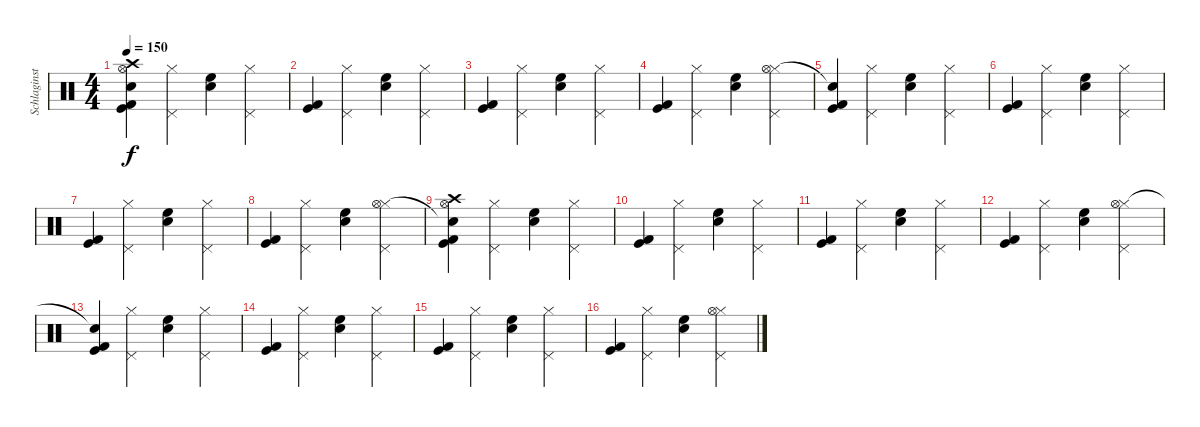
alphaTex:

\track ("Schlaginstrumente - Auswahl" "Schlaginst") {instrument percussion}
\staff {score}
\articulation defaults
\ts (4 4)
\tempo 150
\clef neutral
\ks c
("Kick (hit) 2" "Kick (hit)" "Snare (hit)"{t} "Hi-Hat (open)" "Crash high (hit)").4{dy f} ("Pedal Hi-Hat (hit)" "Hi-Hat (closed)").4 ("High Floor Tom (hit)" "Snare (hit) 2").4 ("Pedal Hi-Hat (hit)" "Hi-Hat (closed)").4 |
("Kick (hit) 2" "Kick (hit)").4 ("Pedal Hi-Hat (hit)" "Hi-Hat (closed)").4 ("High Floor Tom (hit)" "Snare (hit) 2").4 ("Pedal Hi-Hat (hit)" "Hi-Hat (closed)").4 |
("Kick (hit) 2" "Kick (hit)").4 ("Pedal Hi-Hat (hit)" "Hi-Hat (closed)").4 ("High Floor Tom (hit)" "Snare (hit) 2").4 ("Pedal Hi-Hat (hit)" "Hi-Hat (closed)").4 |
("Kick (hit) 2" "Kick (hit)").4 ("Pedal Hi-Hat (hit)" "Hi-Hat (closed)").4 ("High Floor Tom (hit)" "Snare (hit) 2").4 ("Pedal Hi-Hat (hit)" "Hi-Hat (closed)" "Hi-Hat (open)").4 |
("Kick (hit) 2" "Kick (hit)" "Snare (hit)"{t}).4 ("Pedal Hi-Hat (hit)" "Hi-Hat (closed)").4 ("High Floor Tom (hit)" "Snare (hit) 2").4 ("Pedal Hi-Hat (hit)" "Hi-Hat (closed)").4 |
("Kick (hit) 2" "Kick (hit)").4 ("Pedal Hi-Hat (hit)" "Hi-Hat (closed)").4 ("High Floor Tom (hit)" "Snare (hit) 2").4 ("Pedal Hi-Hat (hit)" "Hi-Hat (closed)").4 |
("Kick (hit) 2" "Kick (hit)").4 ("Pedal Hi-Hat (hit)" "Hi-Hat (closed)").4 ("High Floor Tom (hit)" "Snare (hit) 2").4 ("Pedal Hi-Hat (hit)" "Hi-Hat (closed)").4 |
("Kick (hit) 2" "Kick (hit)").4 ("Pedal Hi-Hat (hit)" "Hi-Hat (closed)").4 ("High Floor Tom (hit)" "Snare (hit) 2").4 ("Pedal Hi-Hat (hit)" "Hi-Hat (closed)" "Hi-Hat (open)").4 |
("Kick (hit) 2" "Kick (hit)" "Snare (hit)"{t} "Hi-Hat (open)" "Crash high (hit)").4 ("Pedal Hi-Hat (hit)" "Hi-Hat (closed)").4 ("High Floor Tom (hit)" "Snare (hit) 2").4 ("Pedal Hi-Hat (hit)" "Hi-Hat (closed)").4 |
("Kick (hit) 2" "Kick (hit)").4 ("Pedal Hi-Hat (hit)" "Hi-Hat (closed)").4 ("High Floor Tom (hit)" "Snare (hit) 2").4 ("Pedal Hi-Hat (hit)" "Hi-Hat (closed)").4 |
("Kick (hit) 2" "Kick (hit)").4 ("Pedal Hi-Hat (hit)" "Hi-Hat (closed)").4 ("High Floor Tom (hit)" "Snare (hit) 2").4 ("Pedal Hi-Hat (hit)" "Hi-Hat (closed)").4 |
("Kick (hit) 2" "Kick (hit)").4 ("Pedal Hi-Hat (hit)" "Hi-Hat (closed)").4 ("High Floor Tom (hit)" "Snare (hit) 2").4 ("Pedal Hi-Hat (hit)" "Hi-Hat (closed)" "Hi-Hat (open)").4 |
("Kick (hit) 2" "Kick (hit)" "Snare (hit)"{t}).4 ("Pedal Hi-Hat (hit)" "Hi-Hat (closed)").4 ("High Floor Tom (hit)" "Snare (hit) 2").4 ("Pedal Hi-Hat (hit)" "Hi-Hat (closed)").4 |
("Kick (hit) 2" "Kick (hit)").4 ("Pedal Hi-Hat (hit)" "Hi-Hat (closed)").4 ("High Floor Tom (hit)" "Snare (hit) 2").4 ("Pedal Hi-Hat (hit)" "Hi-Hat (closed)").4 |
("Kick (hit) 2" "Kick (hit)").4 ("Pedal Hi-Hat (hit)" "Hi-Hat (closed)").4 ("High Floor Tom (hit)" "Snare (hit) 2").4 ("Pedal Hi-Hat (hit)" "Hi-Hat (closed)").4 |
("Kick (hit) 2" "Kick (hit)").4 ("Pedal Hi-Hat (hit)" "Hi-Hat (closed)").4 ("High Floor Tom (hit)" "Snare (hit) 2").4 ("Pedal Hi-Hat (hit)" "Hi-Hat (closed)" "Hi-Hat (open)").4
